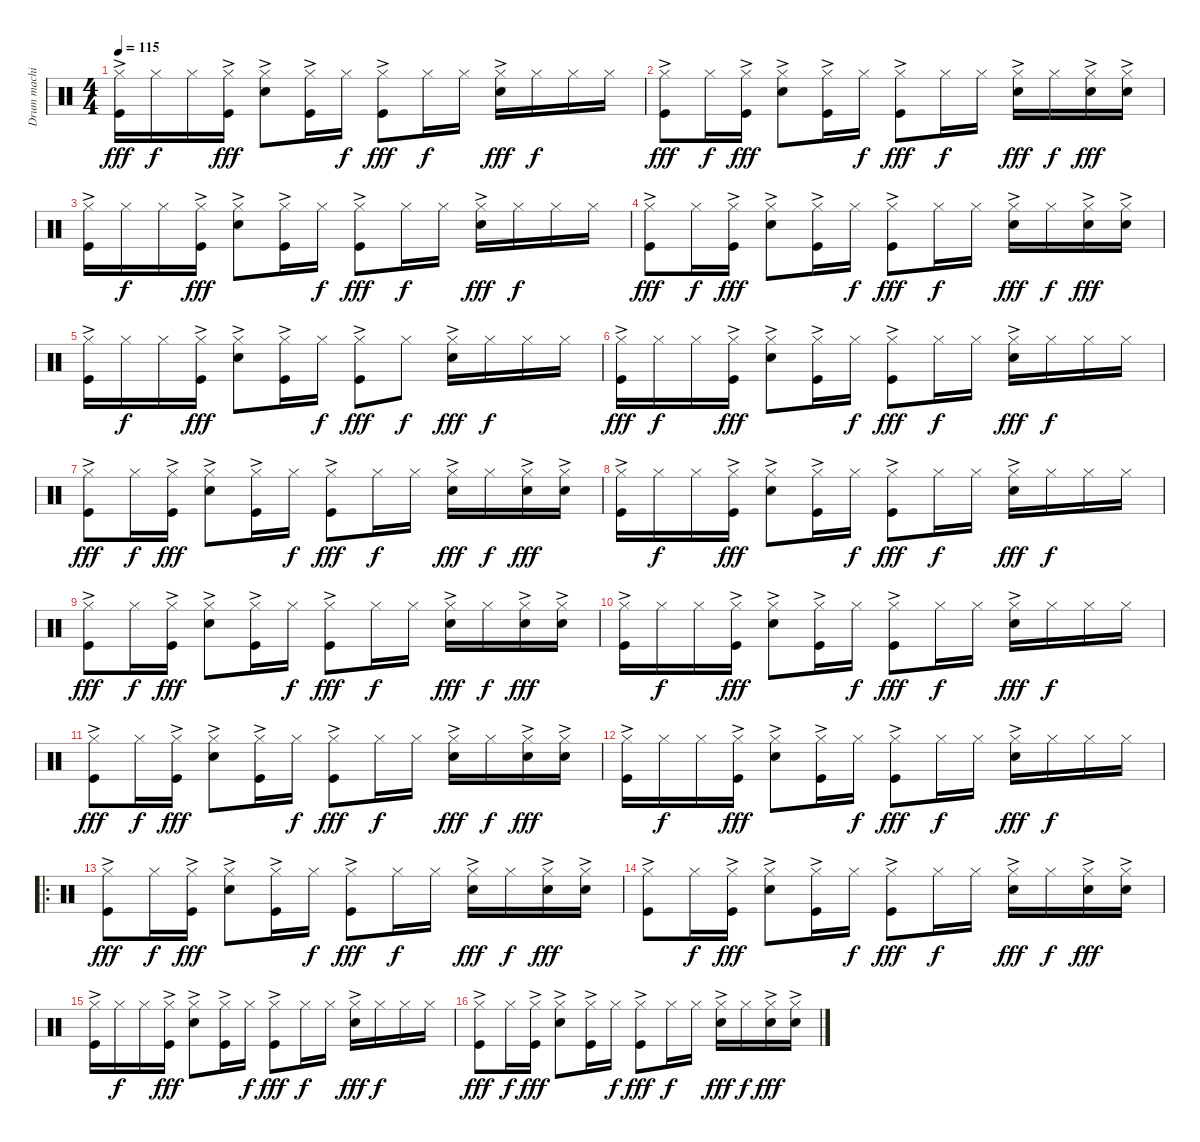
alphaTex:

\track ("Drum machine" "Drum machi") {instrument percussion}
\staff {score}
\articulation defaults
\ts (4 4)
\tempo 115
\clef neutral
\ks c
("Hi-Hat (closed)" "Kick (hit)"{ac}).16{dy fff} "Hi-Hat (closed)".16{dy f} "Hi-Hat (closed)".16 ("Hi-Hat (closed)" "Kick (hit)"{ac}).16{dy fff} ("Hi-Hat (closed)" "Snare (hit) 2"{ac}).8 ("Hi-Hat (closed)" "Kick (hit)"{ac}).16 "Hi-Hat (closed)".16{dy f} ("Hi-Hat (closed)" "Kick (hit)"{ac}).8{dy fff} "Hi-Hat (closed)".16{dy f} "Hi-Hat (closed)".16 ("Hi-Hat (closed)" "Snare (hit) 2"{ac}).16{dy fff} "Hi-Hat (closed)".16{dy f} "Hi-Hat (closed)".16 "Hi-Hat (closed)".16 |
("Hi-Hat (closed)" "Kick (hit)"{ac}).8{dy fff} "Hi-Hat (closed)".16{dy f} ("Hi-Hat (closed)" "Kick (hit)"{ac}).16{dy fff} ("Hi-Hat (closed)" "Snare (hit) 2"{ac}).8 ("Hi-Hat (closed)" "Kick (hit)"{ac}).16 "Hi-Hat (closed)".16{dy f} ("Hi-Hat (closed)" "Kick (hit)"{ac}).8{dy fff} "Hi-Hat (closed)".16{dy f} "Hi-Hat (closed)".16 ("Hi-Hat (closed)" "Snare (hit) 2"{ac}).16{dy fff} "Hi-Hat (closed)".16{dy f} ("Hi-Hat (closed)" "Snare (hit) 2"{ac}).16{dy fff} ("Hi-Hat (closed)" "Snare (hit) 2"{ac}).16 |
("Hi-Hat (closed)" "Kick (hit)"{ac}).16 "Hi-Hat (closed)".16{dy f} "Hi-Hat (closed)".16 ("Hi-Hat (closed)" "Kick (hit)"{ac}).16{dy fff} ("Hi-Hat (closed)" "Snare (hit) 2"{ac}).8 ("Hi-Hat (closed)" "Kick (hit)"{ac}).16 "Hi-Hat (closed)".16{dy f} ("Hi-Hat (closed)" "Kick (hit)"{ac}).8{dy fff} "Hi-Hat (closed)".16{dy f} "Hi-Hat (closed)".16 ("Hi-Hat (closed)" "Snare (hit) 2"{ac}).16{dy fff} "Hi-Hat (closed)".16{dy f} "Hi-Hat (closed)".16 "Hi-Hat (closed)".16 |
("Hi-Hat (closed)" "Kick (hit)"{ac}).8{dy fff} "Hi-Hat (closed)".16{dy f} ("Hi-Hat (closed)" "Kick (hit)"{ac}).16{dy fff} ("Hi-Hat (closed)" "Snare (hit) 2"{ac}).8 ("Hi-Hat (closed)" "Kick (hit)"{ac}).16 "Hi-Hat (closed)".16{dy f} ("Hi-Hat (closed)" "Kick (hit)"{ac}).8{dy fff} "Hi-Hat (closed)".16{dy f} "Hi-Hat (closed)".16 ("Hi-Hat (closed)" "Snare (hit) 2"{ac}).16{dy fff} "Hi-Hat (closed)".16{dy f} ("Hi-Hat (closed)" "Snare (hit) 2"{ac}).16{dy fff} ("Hi-Hat (closed)" "Snare (hit) 2"{ac}).16 |
("Hi-Hat (closed)" "Kick (hit)"{ac}).16 "Hi-Hat (closed)".16{dy f} "Hi-Hat (closed)".16 ("Hi-Hat (closed)" "Kick (hit)"{ac}).16{dy fff} ("Hi-Hat (closed)" "Snare (hit) 2"{ac}).8 ("Hi-Hat (closed)" "Kick (hit)"{ac}).16 "Hi-Hat (closed)".16{dy f} ("Hi-Hat (closed)" "Kick (hit)"{ac}).8{dy fff} "Hi-Hat (closed)".8{dy f} ("Hi-Hat (closed)" "Snare (hit) 2"{ac}).16{dy fff} "Hi-Hat (closed)".16{dy f} "Hi-Hat (closed)".16 "Hi-Hat (closed)".16 |
("Hi-Hat (closed)" "Kick (hit)"{ac}).16{dy fff} "Hi-Hat (closed)".16{dy f} "Hi-Hat (closed)".16 ("Hi-Hat (closed)" "Kick (hit)"{ac}).16{dy fff} ("Hi-Hat (closed)" "Snare (hit) 2"{ac}).8 ("Hi-Hat (closed)" "Kick (hit)"{ac}).16 "Hi-Hat (closed)".16{dy f} ("Hi-Hat (closed)" "Kick (hit)"{ac}).8{dy fff} "Hi-Hat (closed)".16{dy f} "Hi-Hat (closed)".16 ("Hi-Hat (closed)" "Snare (hit) 2"{ac}).16{dy fff} "Hi-Hat (closed)".16{dy f} "Hi-Hat (closed)".16 "Hi-Hat (closed)".16 |
("Hi-Hat (closed)" "Kick (hit)"{ac}).8{dy fff} "Hi-Hat (closed)".16{dy f} ("Hi-Hat (closed)" "Kick (hit)"{ac}).16{dy fff} ("Hi-Hat (closed)" "Snare (hit) 2"{ac}).8 ("Hi-Hat (closed)" "Kick (hit)"{ac}).16 "Hi-Hat (closed)".16{dy f} ("Hi-Hat (closed)" "Kick (hit)"{ac}).8{dy fff} "Hi-Hat (closed)".16{dy f} "Hi-Hat (closed)".16 ("Hi-Hat (closed)" "Snare (hit) 2"{ac}).16{dy fff} "Hi-Hat (closed)".16{dy f} ("Hi-Hat (closed)" "Snare (hit) 2"{ac}).16{dy fff} ("Hi-Hat (closed)" "Snare (hit) 2"{ac}).16 |
("Hi-Hat (closed)" "Kick (hit)"{ac}).16 "Hi-Hat (closed)".16{dy f} "Hi-Hat (closed)".16 ("Hi-Hat (closed)" "Kick (hit)"{ac}).16{dy fff} ("Hi-Hat (closed)" "Snare (hit) 2"{ac}).8 ("Hi-Hat (closed)" "Kick (hit)"{ac}).16 "Hi-Hat (closed)".16{dy f} ("Hi-Hat (closed)" "Kick (hit)"{ac}).8{dy fff} "Hi-Hat (closed)".16{dy f} "Hi-Hat (closed)".16 ("Hi-Hat (closed)" "Snare (hit) 2"{ac}).16{dy fff} "Hi-Hat (closed)".16{dy f} "Hi-Hat (closed)".16 "Hi-Hat (closed)".16 |
("Hi-Hat (closed)" "Kick (hit)"{ac}).8{dy fff} "Hi-Hat (closed)".16{dy f} ("Hi-Hat (closed)" "Kick (hit)"{ac}).16{dy fff} ("Hi-Hat (closed)" "Snare (hit) 2"{ac}).8 ("Hi-Hat (closed)" "Kick (hit)"{ac}).16 "Hi-Hat (closed)".16{dy f} ("Hi-Hat (closed)" "Kick (hit)"{ac}).8{dy fff} "Hi-Hat (closed)".16{dy f} "Hi-Hat (closed)".16 ("Hi-Hat (closed)" "Snare (hit) 2"{ac}).16{dy fff} "Hi-Hat (closed)".16{dy f} ("Hi-Hat (closed)" "Snare (hit) 2"{ac}).16{dy fff} ("Hi-Hat (closed)" "Snare (hit) 2"{ac}).16 |
("Hi-Hat (closed)" "Kick (hit)"{ac}).16 "Hi-Hat (closed)".16{dy f} "Hi-Hat (closed)".16 ("Hi-Hat (closed)" "Kick (hit)"{ac}).16{dy fff} ("Hi-Hat (closed)" "Snare (hit) 2"{ac}).8 ("Hi-Hat (closed)" "Kick (hit)"{ac}).16 "Hi-Hat (closed)".16{dy f} ("Hi-Hat (closed)" "Kick (hit)"{ac}).8{dy fff} "Hi-Hat (closed)".16{dy f} "Hi-Hat (closed)".16 ("Hi-Hat (closed)" "Snare (hit) 2"{ac}).16{dy fff} "Hi-Hat (closed)".16{dy f} "Hi-Hat (closed)".16 "Hi-Hat (closed)".16 |
("Hi-Hat (closed)" "Kick (hit)"{ac}).8{dy fff} "Hi-Hat (closed)".16{dy f} ("Hi-Hat (closed)" "Kick (hit)"{ac}).16{dy fff} ("Hi-Hat (closed)" "Snare (hit) 2"{ac}).8 ("Hi-Hat (closed)" "Kick (hit)"{ac}).16 "Hi-Hat (closed)".16{dy f} ("Hi-Hat (closed)" "Kick (hit)"{ac}).8{dy fff} "Hi-Hat (closed)".16{dy f} "Hi-Hat (closed)".16 ("Hi-Hat (closed)" "Snare (hit) 2"{ac}).16{dy fff} "Hi-Hat (closed)".16{dy f} ("Hi-Hat (closed)" "Snare (hit) 2"{ac}).16{dy fff} ("Hi-Hat (closed)" "Snare (hit) 2"{ac}).16 |
("Hi-Hat (closed)" "Kick (hit)"{ac}).16 "Hi-Hat (closed)".16{dy f} "Hi-Hat (closed)".16 ("Hi-Hat (closed)" "Kick (hit)"{ac}).16{dy fff} ("Hi-Hat (closed)" "Snare (hit) 2"{ac}).8 ("Hi-Hat (closed)" "Kick (hit)"{ac}).16 "Hi-Hat (closed)".16{dy f} ("Hi-Hat (closed)" "Kick (hit)"{ac}).8{dy fff} "Hi-Hat (closed)".16{dy f} "Hi-Hat (closed)".16 ("Hi-Hat (closed)" "Snare (hit) 2"{ac}).16{dy fff} "Hi-Hat (closed)".16{dy f} "Hi-Hat (closed)".16 "Hi-Hat (closed)".16 |
\ro
("Hi-Hat (closed)" "Kick (hit)"{ac}).8{dy fff} "Hi-Hat (closed)".16{dy f} ("Hi-Hat (closed)" "Kick (hit)"{ac}).16{dy fff} ("Hi-Hat (closed)" "Snare (hit) 2"{ac}).8 ("Hi-Hat (closed)" "Kick (hit)"{ac}).16 "Hi-Hat (closed)".16{dy f} ("Hi-Hat (closed)" "Kick (hit)"{ac}).8{dy fff} "Hi-Hat (closed)".16{dy f} "Hi-Hat (closed)".16 ("Hi-Hat (closed)" "Snare (hit) 2"{ac}).16{dy fff} "Hi-Hat (closed)".16{dy f} ("Hi-Hat (closed)" "Snare (hit) 2"{ac}).16{dy fff} ("Hi-Hat (closed)" "Snare (hit) 2"{ac}).16 |
("Hi-Hat (closed)" "Kick (hit)"{ac}).8 "Hi-Hat (closed)".16{dy f} ("Hi-Hat (closed)" "Kick (hit)"{ac}).16{dy fff} ("Hi-Hat (closed)" "Snare (hit) 2"{ac}).8 ("Hi-Hat (closed)" "Kick (hit)"{ac}).16 "Hi-Hat (closed)".16{dy f} ("Hi-Hat (closed)" "Kick (hit)"{ac}).8{dy fff} "Hi-Hat (closed)".16{dy f} "Hi-Hat (closed)".16 ("Hi-Hat (closed)" "Snare (hit) 2"{ac}).16{dy fff} "Hi-Hat (closed)".16{dy f} ("Hi-Hat (closed)" "Snare (hit) 2"{ac}).16{dy fff} ("Hi-Hat (closed)" "Snare (hit) 2"{ac}).16 |
("Hi-Hat (closed)" "Kick (hit)"{ac}).16 "Hi-Hat (closed)".16{dy f} "Hi-Hat (closed)".16 ("Hi-Hat (closed)" "Kick (hit)"{ac}).16{dy fff} ("Hi-Hat (closed)" "Snare (hit) 2"{ac}).8 ("Hi-Hat (closed)" "Kick (hit)"{ac}).16 "Hi-Hat (closed)".16{dy f} ("Hi-Hat (closed)" "Kick (hit)"{ac}).8{dy fff} "Hi-Hat (closed)".16{dy f} "Hi-Hat (closed)".16 ("Hi-Hat (closed)" "Snare (hit) 2"{ac}).16{dy fff} "Hi-Hat (closed)".16{dy f} "Hi-Hat (closed)".16 "Hi-Hat (closed)".16 |
("Hi-Hat (closed)" "Kick (hit)"{ac}).8{dy fff} "Hi-Hat (closed)".16{dy f} ("Hi-Hat (closed)" "Kick (hit)"{ac}).16{dy fff} ("Hi-Hat (closed)" "Snare (hit) 2"{ac}).8 ("Hi-Hat (closed)" "Kick (hit)"{ac}).16 "Hi-Hat (closed)".16{dy f} ("Hi-Hat (closed)" "Kick (hit)"{ac}).8{dy fff} "Hi-Hat (closed)".16{dy f} "Hi-Hat (closed)".16 ("Hi-Hat (closed)" "Snare (hit) 2"{ac}).16{dy fff} "Hi-Hat (closed)".16{dy f} ("Hi-Hat (closed)" "Snare (hit) 2"{ac}).16{dy fff} ("Hi-Hat (closed)" "Snare (hit) 2"{ac}).16
